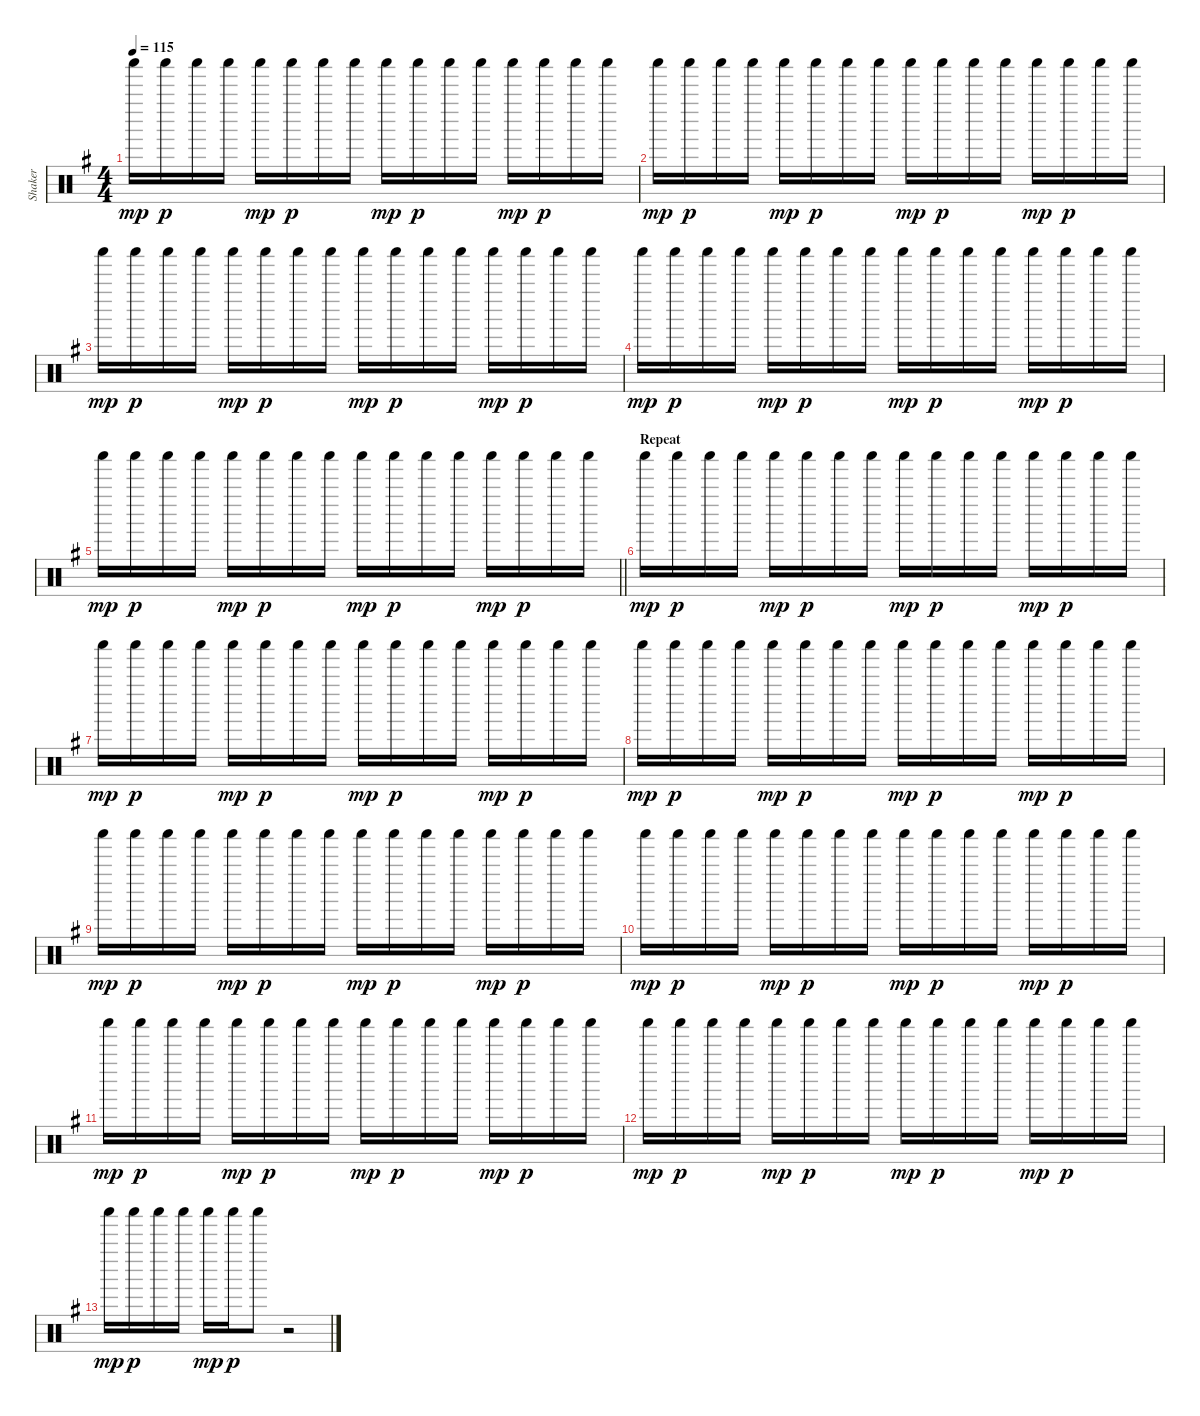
\track ("Shaker" "Shaker") {instrument percussion}
\staff {score}
\articulation defaults
\ts (4 4)
\tempo 115
\clef neutral
\ks g "Shaker (hit)".16{dy mp} "Shaker (hit)".16{dy p} "Shaker (hit)".16 "Shaker (hit)".16 "Shaker (hit)".16{dy mp} "Shaker (hit)".16{dy p} "Shaker (hit)".16 "Shaker (hit)".16 "Shaker (hit)".16{dy mp} "Shaker (hit)".16{dy p} "Shaker (hit)".16 "Shaker (hit)".16 "Shaker (hit)".16{dy mp} "Shaker (hit)".16{dy p} "Shaker (hit)".16 "Shaker (hit)".16
|
"Shaker (hit)".16{dy mp} "Shaker (hit)".16{dy p} "Shaker (hit)".16 "Shaker (hit)".16 "Shaker (hit)".16{dy mp} "Shaker (hit)".16{dy p} "Shaker (hit)".16 "Shaker (hit)".16 "Shaker (hit)".16{dy mp} "Shaker (hit)".16{dy p} "Shaker (hit)".16 "Shaker (hit)".16 "Shaker (hit)".16{dy mp} "Shaker (hit)".16{dy p} "Shaker (hit)".16 "Shaker (hit)".16 |
"Shaker (hit)".16{dy mp} "Shaker (hit)".16{dy p} "Shaker (hit)".16 "Shaker (hit)".16 "Shaker (hit)".16{dy mp} "Shaker (hit)".16{dy p} "Shaker (hit)".16 "Shaker (hit)".16 "Shaker (hit)".16{dy mp} "Shaker (hit)".16{dy p} "Shaker (hit)".16 "Shaker (hit)".16 "Shaker (hit)".16{dy mp} "Shaker (hit)".16{dy p} "Shaker (hit)".16 "Shaker (hit)".16 |
"Shaker (hit)".16{dy mp} "Shaker (hit)".16{dy p} "Shaker (hit)".16 "Shaker (hit)".16 "Shaker (hit)".16{dy mp} "Shaker (hit)".16{dy p} "Shaker (hit)".16 "Shaker (hit)".16 "Shaker (hit)".16{dy mp} "Shaker (hit)".16{dy p} "Shaker (hit)".16 "Shaker (hit)".16 "Shaker (hit)".16{dy mp} "Shaker (hit)".16{dy p} "Shaker (hit)".16 "Shaker (hit)".16 |
\barLineRight lightlight "Shaker (hit)".16{dy mp} "Shaker (hit)".16{dy p} "Shaker (hit)".16 "Shaker (hit)".16 "Shaker (hit)".16{dy mp} "Shaker (hit)".16{dy p} "Shaker (hit)".16 "Shaker (hit)".16 "Shaker (hit)".16{dy mp} "Shaker (hit)".16{dy p} "Shaker (hit)".16 "Shaker (hit)".16 "Shaker (hit)".16{dy mp} "Shaker (hit)".16{dy p} "Shaker (hit)".16 "Shaker (hit)".16
|
\section ("" "Repeat")
"Shaker (hit)".16{dy mp} "Shaker (hit)".16{dy p} "Shaker (hit)".16 "Shaker (hit)".16 "Shaker (hit)".16{dy mp} "Shaker (hit)".16{dy p} "Shaker (hit)".16 "Shaker (hit)".16 "Shaker (hit)".16{dy mp} "Shaker (hit)".16{dy p} "Shaker (hit)".16 "Shaker (hit)".16 "Shaker (hit)".16{dy mp} "Shaker (hit)".16{dy p} "Shaker (hit)".16 "Shaker (hit)".16 |
"Shaker (hit)".16{dy mp} "Shaker (hit)".16{dy p} "Shaker (hit)".16 "Shaker (hit)".16 "Shaker (hit)".16{dy mp} "Shaker (hit)".16{dy p} "Shaker (hit)".16 "Shaker (hit)".16 "Shaker (hit)".16{dy mp} "Shaker (hit)".16{dy p} "Shaker (hit)".16 "Shaker (hit)".16 "Shaker (hit)".16{dy mp} "Shaker (hit)".16{dy p} "Shaker (hit)".16 "Shaker (hit)".16 |
"Shaker (hit)".16{dy mp} "Shaker (hit)".16{dy p} "Shaker (hit)".16 "Shaker (hit)".16 "Shaker (hit)".16{dy mp} "Shaker (hit)".16{dy p} "Shaker (hit)".16 "Shaker (hit)".16 "Shaker (hit)".16{dy mp} "Shaker (hit)".16{dy p} "Shaker (hit)".16 "Shaker (hit)".16 "Shaker (hit)".16{dy mp} "Shaker (hit)".16{dy p} "Shaker (hit)".16 "Shaker (hit)".16 |
"Shaker (hit)".16{dy mp} "Shaker (hit)".16{dy p} "Shaker (hit)".16 "Shaker (hit)".16 "Shaker (hit)".16{dy mp} "Shaker (hit)".16{dy p} "Shaker (hit)".16 "Shaker (hit)".16 "Shaker (hit)".16{dy mp} "Shaker (hit)".16{dy p} "Shaker (hit)".16 "Shaker (hit)".16 "Shaker (hit)".16{dy mp} "Shaker (hit)".16{dy p} "Shaker (hit)".16 "Shaker (hit)".16 |
"Shaker (hit)".16{dy mp} "Shaker (hit)".16{dy p} "Shaker (hit)".16 "Shaker (hit)".16 "Shaker (hit)".16{dy mp} "Shaker (hit)".16{dy p} "Shaker (hit)".16 "Shaker (hit)".16 "Shaker (hit)".16{dy mp} "Shaker (hit)".16{dy p} "Shaker (hit)".16 "Shaker (hit)".16 "Shaker (hit)".16{dy mp} "Shaker (hit)".16{dy p} "Shaker (hit)".16 "Shaker (hit)".16 |
"Shaker (hit)".16{dy mp} "Shaker (hit)".16{dy p} "Shaker (hit)".16 "Shaker (hit)".16 "Shaker (hit)".16{dy mp} "Shaker (hit)".16{dy p} "Shaker (hit)".16 "Shaker (hit)".16 "Shaker (hit)".16{dy mp} "Shaker (hit)".16{dy p} "Shaker (hit)".16 "Shaker (hit)".16 "Shaker (hit)".16{dy mp} "Shaker (hit)".16{dy p} "Shaker (hit)".16 "Shaker (hit)".16 |
"Shaker (hit)".16{dy mp} "Shaker (hit)".16{dy p} "Shaker (hit)".16 "Shaker (hit)".16 "Shaker (hit)".16{dy mp} "Shaker (hit)".16{dy p} "Shaker (hit)".16 "Shaker (hit)".16 "Shaker (hit)".16{dy mp} "Shaker (hit)".16{dy p} "Shaker (hit)".16 "Shaker (hit)".16 "Shaker (hit)".16{dy mp} "Shaker (hit)".16{dy p} "Shaker (hit)".16 "Shaker (hit)".16 |
"Shaker (hit)".16{dy mp} "Shaker (hit)".16{dy p} "Shaker (hit)".16 "Shaker (hit)".16 "Shaker (hit)".16{dy mp} "Shaker (hit)".16{dy p} "Shaker (hit)".8 r.2
